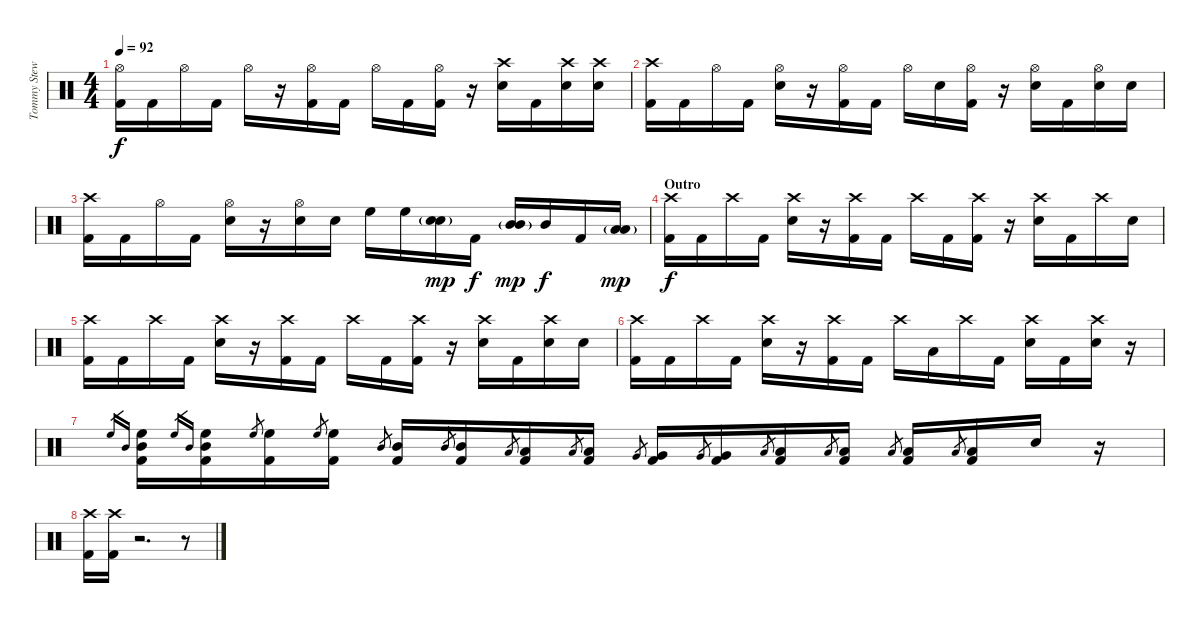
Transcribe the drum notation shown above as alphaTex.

\track ("Tommy Stewart - Drums" "Tommy Stew") {instrument percussion}
\staff {score}
\articulation defaults
\ts (4 4)
\tempo 92
\clef neutral
\ks c
("Hi-Hat (open)" "Kick (hit) 2").16{dy f} "Kick (hit) 2".16 "Hi-Hat (open)".16 "Kick (hit) 2".16 "Hi-Hat (open)".16 r.16 ("Hi-Hat (open)" "Kick (hit) 2").16 "Kick (hit) 2".16 "Hi-Hat (open)".16 "Kick (hit) 2".16 ("Hi-Hat (open)" "Kick (hit) 2").16 r.16 ("Crash high (hit)" "Snare (hit) 2").16 "Kick (hit) 2".16 ("Crash high (hit)" "Snare (hit) 2").16 ("Crash high (hit)" "Snare (hit) 2").16 |
("Crash high (hit)" "Kick (hit) 2").16 "Kick (hit) 2".16 "Hi-Hat (open)".16 "Kick (hit) 2".16 ("Hi-Hat (open)" "Snare (hit) 2").16 r.16 ("Hi-Hat (open)" "Kick (hit) 2").16 "Kick (hit) 2".16 "Hi-Hat (open)".16 "Snare (hit) 2".16 ("Hi-Hat (open)" "Kick (hit) 2").16 r.16 ("Hi-Hat (open)" "Snare (hit) 2").16 "Kick (hit) 2".16 ("Hi-Hat (open)" "Snare (hit) 2").16 "Snare (hit) 2".16 |
("Crash high (hit)" "Kick (hit) 2").16 "Kick (hit) 2".16 "Hi-Hat (open)".16 "Kick (hit) 2".16 ("Hi-Hat (open)" "Snare (hit) 2").16 r.16 ("Hi-Hat (open)" "Snare (hit) 2").16 "Snare (hit) 2".16 "High Floor Tom (hit)".16 "High Floor Tom (hit)".16 ("Snare (hit) 2"{g} "Snare (hit) 2").16{dy mp} "Kick (hit) 2".16{dy f} ("Mid Tom (hit)"{g} "Mid Tom (hit)").16{dy mp} "Mid Tom (hit)".16{dy f} "Kick (hit) 2".16 ("Low Floor Tom (hit)"{g} "Low Floor Tom (hit)").16{dy mp} |
\section ("" "Outro")
("Crash high (hit)" "Kick (hit) 2").16{dy f} "Kick (hit) 2".16 "Crash high (hit)".16 "Kick (hit) 2".16 ("Crash high (hit)" "Snare (hit) 2").16 r.16 ("Crash high (hit)" "Kick (hit) 2").16 "Kick (hit) 2".16 "Crash high (hit)".16 "Kick (hit) 2".16 ("Crash high (hit)" "Kick (hit) 2").16 r.16 ("Crash high (hit)" "Snare (hit) 2").16 "Kick (hit) 2".16 "Crash high (hit)".16 "Snare (hit) 2".16 |
("Crash high (hit)" "Kick (hit) 2").16 "Kick (hit) 2".16 "Crash high (hit)".16 "Kick (hit) 2".16 ("Crash high (hit)" "Snare (hit) 2").16 r.16 ("Crash high (hit)" "Kick (hit) 2").16 "Kick (hit) 2".16 "Crash high (hit)".16 "Kick (hit) 2".16 ("Crash high (hit)" "Kick (hit) 2").16 r.16 ("Crash high (hit)" "Snare (hit) 2").16 "Kick (hit) 2".16 ("Crash high (hit)" "Snare (hit) 2").16 "Snare (hit) 2".16 |
("Crash high (hit)" "Kick (hit) 2").16 "Kick (hit) 2".16 "Crash high (hit)".16 "Kick (hit) 2".16 ("Crash high (hit)" "Snare (hit) 2").16 r.16 ("Crash high (hit)" "Kick (hit) 2").16 "Kick (hit) 2".16 "Crash high (hit)".16 "Low Tom (hit)".16 "Crash high (hit)".16 "Kick (hit) 2".16 ("Crash high (hit)" "Snare (hit) 2").16 "Kick (hit) 2".16 ("Crash high (hit)" "Snare (hit) 2").16 r.16 |
"High Floor Tom (hit)".16{gr} "Mid Tom (hit)".16{gr} ("High Floor Tom (hit)" "Mid Tom (hit)" "Kick (hit) 2").16 "High Floor Tom (hit)".16{gr} "Mid Tom (hit)".16{gr} ("High Floor Tom (hit)" "Mid Tom (hit)" "Kick (hit) 2").16 "High Floor Tom (hit)".8{gr} ("High Floor Tom (hit)" "Kick (hit) 2").16 "High Floor Tom (hit)".8{gr} ("High Floor Tom (hit)" "Kick (hit) 2").16 "Mid Tom (hit)".8{gr} ("Mid Tom (hit)" "Kick (hit) 2").16 "Mid Tom (hit)".8{gr} ("Mid Tom (hit)" "Kick (hit) 2").16 "Low Tom (hit)".8{gr} ("Low Tom (hit)" "Kick (hit) 2").16 "Low Tom (hit)".8{gr} ("Low Tom (hit)" "Kick (hit) 2").16 "Very Low Tom (hit)".8{gr} ("Very Low Tom (hit)" "Kick (hit) 2").16 "Very Low Tom (hit)".8{gr} ("Very Low Tom (hit)" "Kick (hit) 2").16 "Low Floor Tom (hit)".8{gr} ("Low Floor Tom (hit)" "Kick (hit) 2").16 "Low Floor Tom (hit)".8{gr} ("Low Floor Tom (hit)" "Kick (hit) 2").16 "Low Floor Tom (hit)".8{gr} ("Low Floor Tom (hit)" "Kick (hit) 2").16 "Low Floor Tom (hit)".8{gr} ("Low Floor Tom (hit)" "Kick (hit) 2").16 "Snare (hit) 2".16 r.16 |
("Crash high (hit)" "Kick (hit) 2").16 ("Crash high (hit)" "Kick (hit) 2").16 r.2{d} r.8
